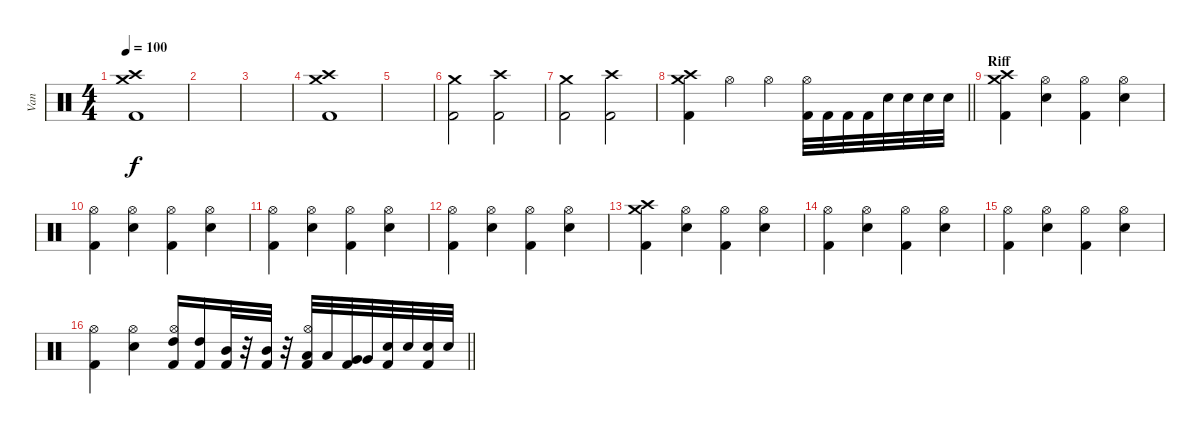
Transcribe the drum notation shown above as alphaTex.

\track ("Van" "Van") {instrument percussion}
\staff {score}
\articulation defaults
\ts (4 4)
\tempo 100
\clef neutral
\ks c
("Crash medium (hit)" "Crash high (hit)" "Kick (hit) 2").1{dy f} |
|
|
("Crash medium (hit)" "Crash high (hit)" "Kick (hit) 2").1 |
|
("Crash medium (hit)" "Kick (hit) 2").2 ("Crash high (hit)" "Kick (hit) 2").2 |
("Crash medium (hit)" "Kick (hit) 2").2 ("Crash high (hit)" "Kick (hit) 2").2 |
\barLineRight lightlight
("Crash medium (hit)" "Crash high (hit)" "Kick (hit) 2").4 "Hi-Hat (open)".4 "Hi-Hat (open)".4 ("Hi-Hat (open)" "Kick (hit) 2").32 "Kick (hit) 2".32 "Kick (hit) 2".32 "Kick (hit) 2".32 "Electric Snare (hit)".32 "Electric Snare (hit)".32 "Electric Snare (hit)".32 "Electric Snare (hit)".32 |
\section ("" "Riff")
("Crash medium (hit)" "Crash high (hit)" "Kick (hit) 2").4 ("Hi-Hat (open)" "Electric Snare (hit)").4 ("Hi-Hat (open)" "Kick (hit) 2").4 ("Hi-Hat (open)" "Electric Snare (hit)").4 |
("Hi-Hat (open)" "Kick (hit) 2").4 ("Hi-Hat (open)" "Electric Snare (hit)").4 ("Hi-Hat (open)" "Kick (hit) 2").4 ("Hi-Hat (open)" "Electric Snare (hit)").4 |
("Hi-Hat (open)" "Kick (hit) 2").4 ("Hi-Hat (open)" "Electric Snare (hit)").4 ("Hi-Hat (open)" "Kick (hit) 2").4 ("Hi-Hat (open)" "Electric Snare (hit)").4 |
("Hi-Hat (open)" "Kick (hit) 2").4 ("Hi-Hat (open)" "Electric Snare (hit)").4 ("Hi-Hat (open)" "Kick (hit) 2").4 ("Hi-Hat (open)" "Electric Snare (hit)").4 |
("Crash medium (hit)" "Crash high (hit)" "Kick (hit) 2").4 ("Hi-Hat (open)" "Electric Snare (hit)").4 ("Hi-Hat (open)" "Kick (hit) 2").4 ("Hi-Hat (open)" "Electric Snare (hit)").4 |
("Hi-Hat (open)" "Kick (hit) 2").4 ("Hi-Hat (open)" "Electric Snare (hit)").4 ("Hi-Hat (open)" "Kick (hit) 2").4 ("Hi-Hat (open)" "Electric Snare (hit)").4 |
("Hi-Hat (open)" "Kick (hit) 2").4 ("Hi-Hat (open)" "Electric Snare (hit)").4 ("Hi-Hat (open)" "Kick (hit) 2").4 ("Hi-Hat (open)" "Electric Snare (hit)").4 |
\barLineRight lightlight
("Hi-Hat (open)" "Kick (hit) 2").4 ("Hi-Hat (open)" "Electric Snare (hit)").4 ("Hi-Hat (open)" "High Tom (hit)" "Kick (hit) 2").16 ("High Tom (hit)" "Kick (hit) 2").16 ("Mid Tom (hit)" "Kick (hit) 2").32 r.32 ("Mid Tom (hit)" "Kick (hit) 2").32 r.32 ("Hi-Hat (open)" "Low Tom (hit)" "Kick (hit) 2").32 "Low Tom (hit)".32 ("Very Low Tom (hit)" "Kick (hit) 2").32 "Very Low Tom (hit)".32 ("Electric Snare (hit)" "Kick (hit) 2").32 "Electric Snare (hit)".32 ("Electric Snare (hit)" "Kick (hit) 2").32 "Electric Snare (hit)".32
